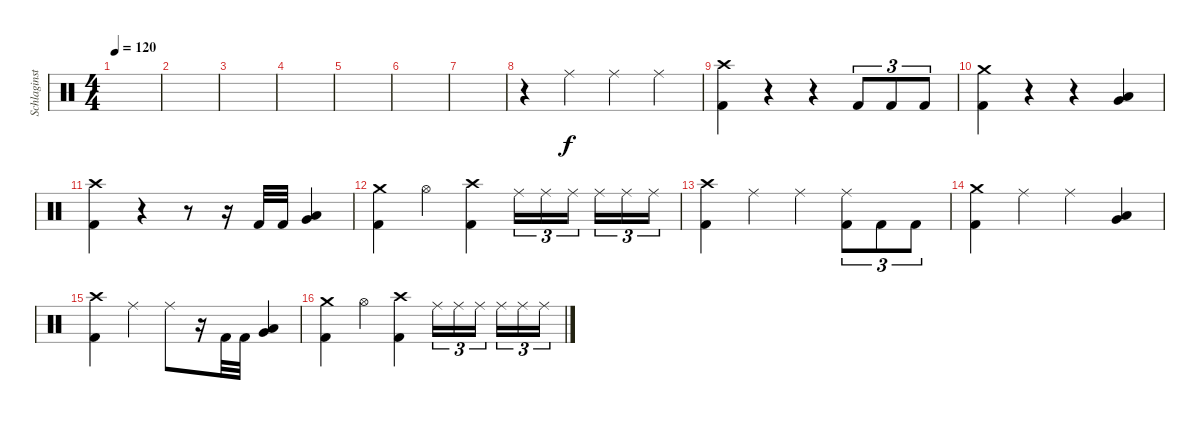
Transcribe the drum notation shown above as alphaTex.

\track ("Schlaginstrumente - Auswahl" "Schlaginst") {instrument percussion}
\staff {score}
\articulation defaults
\ts (4 4)
\tempo 120
\clef neutral
\ks c
|
|
|
|
|
|
|
r.4 "Ride (middle)".4 "Ride (middle)".4 "Ride (middle)".4 |
("Crash high (hit)" "Kick (hit) 2").4 r.4 r.4 "Kick (hit) 2".8{tu (3 2)} "Kick (hit) 2".8{tu (3 2)} "Kick (hit) 2".8{tu (3 2)} |
("Crash medium (hit)" "Kick (hit) 2").4 r.4 r.4 ("Very Low Tom (hit)" "Low Floor Tom (hit)").4 |
("Crash high (hit)" "Kick (hit) 2").4 r.4 r.8 r.16 "Kick (hit) 2".32 "Kick (hit) 2".32 ("Very Low Tom (hit)" "Low Floor Tom (hit)").4 |
("Crash medium (hit)" "Kick (hit) 2").4 "Hi-Hat (open)".4 ("Crash high (hit)" "Kick (hit) 2").4 "Ride (middle)".16{tu (3 2)} "Ride (middle)".16{tu (3 2)} "Ride (middle)".16{tu (3 2) beam splitsecondary} "Ride (middle)".16{tu (3 2)} "Ride (middle)".16{tu (3 2)} "Ride (middle)".16{tu (3 2)} |
("Crash high (hit)" "Kick (hit) 2").4 "Ride (middle)".4 "Ride (middle)".4 ("Ride (middle)" "Kick (hit) 2").8{tu (3 2)} "Kick (hit) 2".8{tu (3 2)} "Kick (hit) 2".8{tu (3 2)} |
("Crash medium (hit)" "Kick (hit) 2").4 "Ride (middle)".4 "Ride (middle)".4 ("Very Low Tom (hit)" "Low Floor Tom (hit)").4 |
("Crash high (hit)" "Kick (hit) 2").4 "Ride (middle)".4 "Ride (middle)".8 r.16 "Kick (hit) 2".32 "Kick (hit) 2".32 ("Very Low Tom (hit)" "Low Floor Tom (hit)").4 |
("Crash medium (hit)" "Kick (hit) 2").4 "Hi-Hat (open)".4 ("Crash high (hit)" "Kick (hit) 2").4 "Ride (middle)".16{tu (3 2)} "Ride (middle)".16{tu (3 2)} "Ride (middle)".16{tu (3 2) beam splitsecondary} "Ride (middle)".16{tu (3 2)} "Ride (middle)".16{tu (3 2)} "Ride (middle)".16{tu (3 2)}
